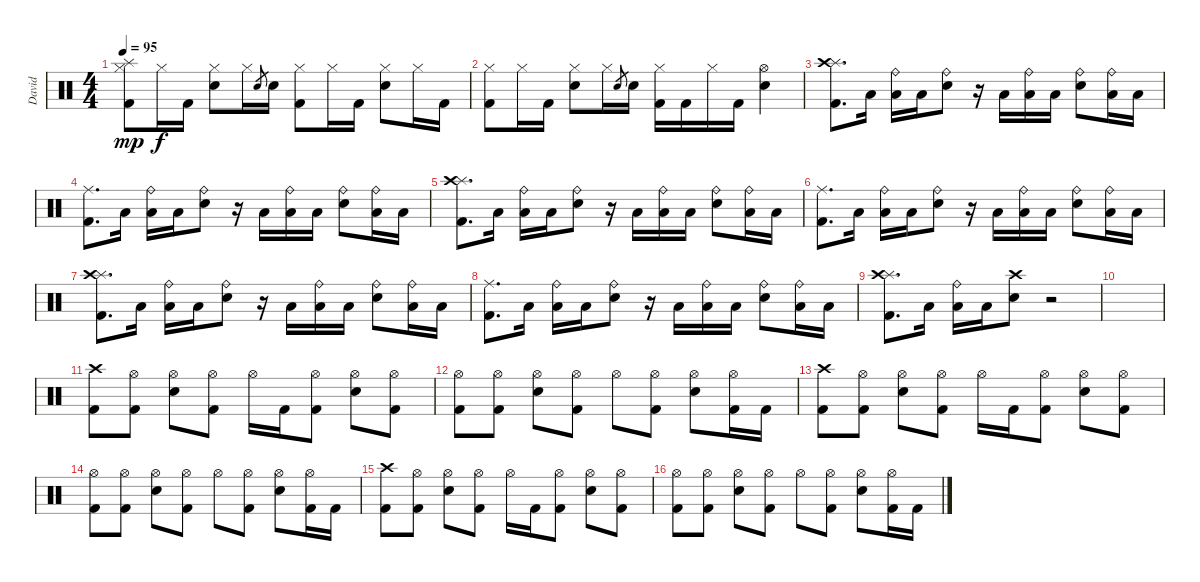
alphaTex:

\track ("David" "David") {instrument percussion}
\staff {score}
\articulation defaults
\ts (4 4)
\tempo 95
\clef neutral
\ks c
("Hi-Hat (closed)" "Splash (hit)" "Kick (hit) 2").8{dy mp} "Hi-Hat (closed)".16{dy f} "Kick (hit) 2".16 ("Hi-Hat (closed)" "Electric Snare (hit)").8 "Hi-Hat (closed)".16 "Electric Snare (hit)".8{gr} "Electric Snare (hit)".16 ("Hi-Hat (closed)" "Kick (hit) 2").8 "Hi-Hat (closed)".16 "Kick (hit) 2".16 ("Hi-Hat (closed)" "Electric Snare (hit)").8 "Hi-Hat (closed)".16 "Kick (hit) 2".16 |
("Hi-Hat (closed)" "Kick (hit) 2").8 "Hi-Hat (closed)".16 "Kick (hit) 2".16 ("Hi-Hat (closed)" "Electric Snare (hit)").8 "Hi-Hat (closed)".16 "Electric Snare (hit)".8{gr} "Electric Snare (hit)".16 ("Hi-Hat (closed)" "Kick (hit) 2").16 "Kick (hit) 2".16 "Hi-Hat (closed)".16 "Kick (hit) 2".16 ("Hi-Hat (open)" "Electric Snare (hit)").4 |
("Splash (hit)" "Crash high (hit)" "Kick (hit) 2").8{d} "Low Floor Tom (hit)".16 ("Ride (bell)" "Low Floor Tom (hit)").16 "Low Floor Tom (hit)".16 ("Ride (bell)" "Electric Snare (hit)").8 r.16 "Low Floor Tom (hit)".16 ("Ride (bell)" "Low Floor Tom (hit)").16 "Low Floor Tom (hit)".16 ("Ride (bell)" "Electric Snare (hit)").8 ("Ride (bell)" "Low Floor Tom (hit)").16 "Low Floor Tom (hit)".16 |
("Ride (middle)" "Kick (hit) 2").8{d} "Low Floor Tom (hit)".16 ("Ride (bell)" "Low Floor Tom (hit)").16 "Low Floor Tom (hit)".16 ("Ride (bell)" "Electric Snare (hit)").8 r.16 "Low Floor Tom (hit)".16 ("Ride (bell)" "Low Floor Tom (hit)").16 "Low Floor Tom (hit)".16 ("Ride (bell)" "Electric Snare (hit)").8 ("Ride (bell)" "Low Floor Tom (hit)").16 "Low Floor Tom (hit)".16 |
("Splash (hit)" "Crash high (hit)" "Kick (hit) 2").8{d} "Low Floor Tom (hit)".16 ("Ride (bell)" "Low Floor Tom (hit)").16 "Low Floor Tom (hit)".16 ("Ride (bell)" "Electric Snare (hit)").8 r.16 "Low Floor Tom (hit)".16 ("Ride (bell)" "Low Floor Tom (hit)").16 "Low Floor Tom (hit)".16 ("Ride (bell)" "Electric Snare (hit)").8 ("Ride (bell)" "Low Floor Tom (hit)").16 "Low Floor Tom (hit)".16 |
("Ride (middle)" "Kick (hit) 2").8{d} "Low Floor Tom (hit)".16 ("Ride (bell)" "Low Floor Tom (hit)").16 "Low Floor Tom (hit)".16 ("Ride (bell)" "Electric Snare (hit)").8 r.16 "Low Floor Tom (hit)".16 ("Ride (bell)" "Low Floor Tom (hit)").16 "Low Floor Tom (hit)".16 ("Ride (bell)" "Electric Snare (hit)").8 ("Ride (bell)" "Low Floor Tom (hit)").16 "Low Floor Tom (hit)".16 |
("Splash (hit)" "Crash high (hit)" "Kick (hit) 2").8{d} "Low Floor Tom (hit)".16 ("Ride (bell)" "Low Floor Tom (hit)").16 "Low Floor Tom (hit)".16 ("Ride (bell)" "Electric Snare (hit)").8 r.16 "Low Floor Tom (hit)".16 ("Ride (bell)" "Low Floor Tom (hit)").16 "Low Floor Tom (hit)".16 ("Ride (bell)" "Electric Snare (hit)").8 ("Ride (bell)" "Low Floor Tom (hit)").16 "Low Floor Tom (hit)".16 |
("Ride (middle)" "Kick (hit) 2").8{d} "Low Floor Tom (hit)".16 ("Ride (bell)" "Low Floor Tom (hit)").16 "Low Floor Tom (hit)".16 ("Ride (bell)" "Electric Snare (hit)").8 r.16 "Low Floor Tom (hit)".16 ("Ride (bell)" "Low Floor Tom (hit)").16 "Low Floor Tom (hit)".16 ("Ride (bell)" "Electric Snare (hit)").8 ("Ride (bell)" "Low Floor Tom (hit)").16 "Low Floor Tom (hit)".16 |
("Splash (hit)" "Crash high (hit)" "Kick (hit) 2").8{d} "Low Floor Tom (hit)".16 ("Ride (bell)" "Low Floor Tom (hit)").16 "Low Floor Tom (hit)".16 ("Crash high (hit)" "Electric Snare (hit)").8 r.2 |
|
("Crash high (hit)" "Kick (hit) 2").8 ("Hi-Hat (open)" "Kick (hit) 2").8 ("Hi-Hat (open)" "Electric Snare (hit)").8 ("Hi-Hat (open)" "Kick (hit) 2").8 "Hi-Hat (open)".16 "Kick (hit) 2".16 ("Hi-Hat (open)" "Kick (hit) 2").8 ("Hi-Hat (open)" "Electric Snare (hit)").8 ("Hi-Hat (open)" "Kick (hit) 2").8 |
("Hi-Hat (open)" "Kick (hit) 2").8 ("Hi-Hat (open)" "Kick (hit) 2").8 ("Hi-Hat (open)" "Electric Snare (hit)").8 ("Hi-Hat (open)" "Kick (hit) 2").8 "Hi-Hat (open)".8 ("Hi-Hat (open)" "Kick (hit) 2").8 ("Hi-Hat (open)" "Electric Snare (hit)").8 ("Hi-Hat (open)" "Kick (hit) 2").16 "Kick (hit) 2".16 |
("Crash high (hit)" "Kick (hit) 2").8 ("Hi-Hat (open)" "Kick (hit) 2").8 ("Hi-Hat (open)" "Electric Snare (hit)").8 ("Hi-Hat (open)" "Kick (hit) 2").8 "Hi-Hat (open)".16 "Kick (hit) 2".16 ("Hi-Hat (open)" "Kick (hit) 2").8 ("Hi-Hat (open)" "Electric Snare (hit)").8 ("Hi-Hat (open)" "Kick (hit) 2").8 |
("Hi-Hat (open)" "Kick (hit) 2").8 ("Hi-Hat (open)" "Kick (hit) 2").8 ("Hi-Hat (open)" "Electric Snare (hit)").8 ("Hi-Hat (open)" "Kick (hit) 2").8 "Hi-Hat (open)".8 ("Hi-Hat (open)" "Kick (hit) 2").8 ("Hi-Hat (open)" "Electric Snare (hit)").8 ("Hi-Hat (open)" "Kick (hit) 2").16 "Kick (hit) 2".16 |
("Crash high (hit)" "Kick (hit) 2").8 ("Hi-Hat (open)" "Kick (hit) 2").8 ("Hi-Hat (open)" "Electric Snare (hit)").8 ("Hi-Hat (open)" "Kick (hit) 2").8 "Hi-Hat (open)".16 "Kick (hit) 2".16 ("Hi-Hat (open)" "Kick (hit) 2").8 ("Hi-Hat (open)" "Electric Snare (hit)").8 ("Hi-Hat (open)" "Kick (hit) 2").8 |
("Hi-Hat (open)" "Kick (hit) 2").8 ("Hi-Hat (open)" "Kick (hit) 2").8 ("Hi-Hat (open)" "Electric Snare (hit)").8 ("Hi-Hat (open)" "Kick (hit) 2").8 "Hi-Hat (open)".8 ("Hi-Hat (open)" "Kick (hit) 2").8 ("Hi-Hat (open)" "Electric Snare (hit)").8 ("Hi-Hat (open)" "Kick (hit) 2").16 "Kick (hit) 2".16
